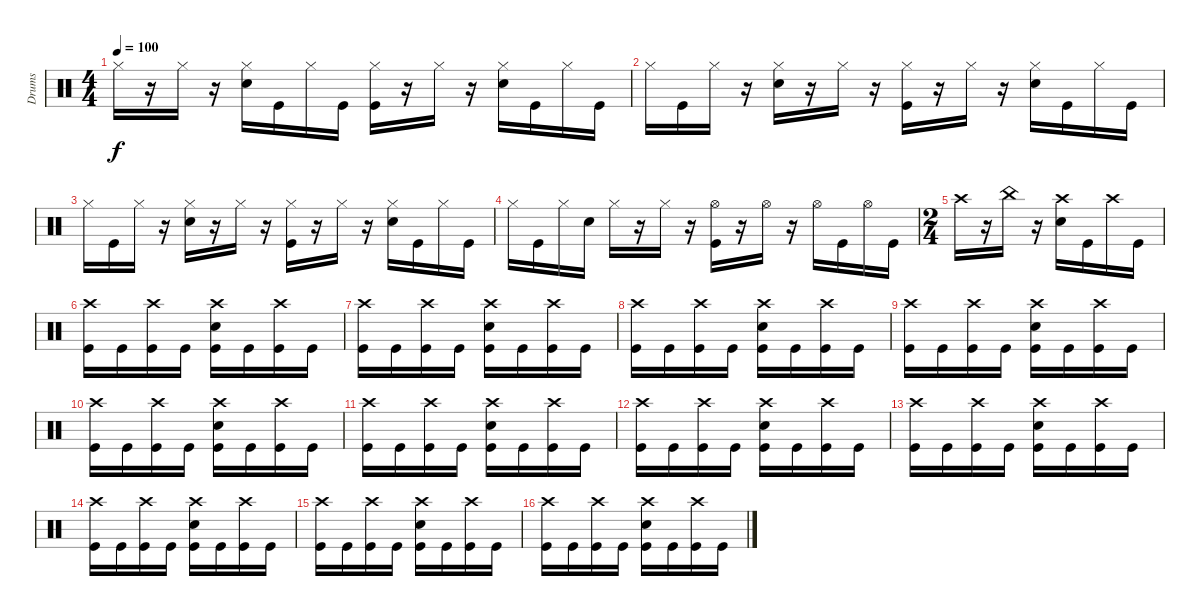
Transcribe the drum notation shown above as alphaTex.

\track ("Drums" "Drums") {instrument percussion}
\staff {score}
\articulation defaults
\ts (4 4)
\tempo 100
\clef neutral
\ks c "Hi-Hat (closed)".16{dy f}
r.16 "Hi-Hat (closed)".16 r.16 ("Hi-Hat (closed)" "Electric Snare (hit)").16 "Kick (hit)".16 "Hi-Hat (closed)".16 "Kick (hit)".16 ("Hi-Hat (closed)" "Kick (hit)").16 r.16 "Hi-Hat (closed)".16 r.16 ("Hi-Hat (closed)" "Electric Snare (hit)").16 "Kick (hit)".16 "Hi-Hat (closed)".16 "Kick (hit)".16 |
"Hi-Hat (closed)".16 "Kick (hit)".16 "Hi-Hat (closed)".16 r.16 ("Hi-Hat (closed)" "Electric Snare (hit)").16 r.16 "Hi-Hat (closed)".16 r.16 ("Hi-Hat (closed)" "Kick (hit)").16 r.16 "Hi-Hat (closed)".16 r.16 ("Hi-Hat (closed)" "Electric Snare (hit)").16 "Kick (hit)".16 "Hi-Hat (closed)".16 "Kick (hit)".16 |
"Hi-Hat (closed)".16 "Kick (hit)".16 "Hi-Hat (closed)".16 r.16 ("Hi-Hat (closed)" "Electric Snare (hit)").16 r.16 "Hi-Hat (closed)".16 r.16 ("Hi-Hat (closed)" "Kick (hit)").16 r.16 "Hi-Hat (closed)".16 r.16 ("Hi-Hat (closed)" "Electric Snare (hit)").16 "Kick (hit)".16 "Hi-Hat (closed)".16 "Kick (hit)".16 |
"Hi-Hat (closed)".16 "Kick (hit)".16 "Hi-Hat (closed)".16 "Electric Snare (hit)".16 "Hi-Hat (closed)".16 r.16 "Hi-Hat (closed)".16 r.16 ("Hi-Hat (open)" "Kick (hit)").16 r.16 "Hi-Hat (open)".16 r.16 "Hi-Hat (open)".16 "Kick (hit)".16 "Hi-Hat (open)".16 "Kick (hit)".16 |
\ts (2 4)
"Crash high (hit)".16 r.16 "China (hit)".16 r.16 ("Crash high (hit)" "Electric Snare (hit)").16 "Kick (hit)".16 "Crash high (hit)".16 "Kick (hit)".16 |
("Crash high (hit)" "Kick (hit)").16 "Kick (hit)".16 ("Crash high (hit)" "Kick (hit)").16 "Kick (hit)".16 ("Crash high (hit)" "Electric Snare (hit)" "Kick (hit)").16 "Kick (hit)".16 ("Crash high (hit)" "Kick (hit)").16 "Kick (hit)".16 |
("Crash high (hit)" "Kick (hit)").16 "Kick (hit)".16 ("Crash high (hit)" "Kick (hit)").16 "Kick (hit)".16 ("Crash high (hit)" "Electric Snare (hit)" "Kick (hit)").16 "Kick (hit)".16 ("Crash high (hit)" "Kick (hit)").16 "Kick (hit)".16 |
("Crash high (hit)" "Kick (hit)").16 "Kick (hit)".16 ("Crash high (hit)" "Kick (hit)").16 "Kick (hit)".16 ("Crash high (hit)" "Electric Snare (hit)" "Kick (hit)").16 "Kick (hit)".16 ("Crash high (hit)" "Kick (hit)").16 "Kick (hit)".16 |
("Crash high (hit)" "Kick (hit)").16 "Kick (hit)".16 ("Crash high (hit)" "Kick (hit)").16 "Kick (hit)".16 ("Crash high (hit)" "Electric Snare (hit)" "Kick (hit)").16 "Kick (hit)".16 ("Crash high (hit)" "Kick (hit)").16 "Kick (hit)".16 |
("Crash high (hit)" "Kick (hit)").16 "Kick (hit)".16 ("Crash high (hit)" "Kick (hit)").16 "Kick (hit)".16 ("Crash high (hit)" "Electric Snare (hit)" "Kick (hit)").16 "Kick (hit)".16 ("Crash high (hit)" "Kick (hit)").16 "Kick (hit)".16 |
("Crash high (hit)" "Kick (hit)").16 "Kick (hit)".16 ("Crash high (hit)" "Kick (hit)").16 "Kick (hit)".16 ("Crash high (hit)" "Electric Snare (hit)" "Kick (hit)").16 "Kick (hit)".16 ("Crash high (hit)" "Kick (hit)").16 "Kick (hit)".16 |
("Crash high (hit)" "Kick (hit)").16 "Kick (hit)".16 ("Crash high (hit)" "Kick (hit)").16 "Kick (hit)".16 ("Crash high (hit)" "Electric Snare (hit)" "Kick (hit)").16 "Kick (hit)".16 ("Crash high (hit)" "Kick (hit)").16 "Kick (hit)".16 |
("Crash high (hit)" "Kick (hit)").16 "Kick (hit)".16 ("Crash high (hit)" "Kick (hit)").16 "Kick (hit)".16 ("Crash high (hit)" "Electric Snare (hit)" "Kick (hit)").16 "Kick (hit)".16 ("Crash high (hit)" "Kick (hit)").16 "Kick (hit)".16 |
("Crash high (hit)" "Kick (hit)").16 "Kick (hit)".16 ("Crash high (hit)" "Kick (hit)").16 "Kick (hit)".16 ("Crash high (hit)" "Electric Snare (hit)" "Kick (hit)").16 "Kick (hit)".16 ("Crash high (hit)" "Kick (hit)").16 "Kick (hit)".16 |
("Crash high (hit)" "Kick (hit)").16 "Kick (hit)".16 ("Crash high (hit)" "Kick (hit)").16 "Kick (hit)".16 ("Crash high (hit)" "Electric Snare (hit)" "Kick (hit)").16 "Kick (hit)".16 ("Crash high (hit)" "Kick (hit)").16 "Kick (hit)".16 |
("Crash high (hit)" "Kick (hit)").16 "Kick (hit)".16 ("Crash high (hit)" "Kick (hit)").16 "Kick (hit)".16 ("Crash high (hit)" "Electric Snare (hit)" "Kick (hit)").16 "Kick (hit)".16 ("Crash high (hit)" "Kick (hit)").16 "Kick (hit)".16
